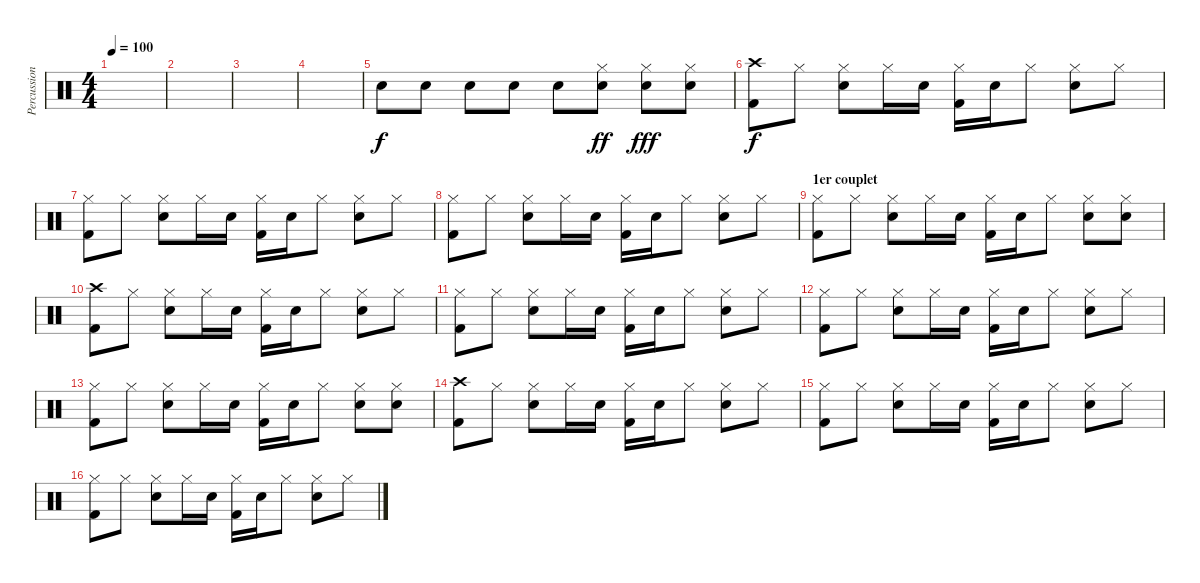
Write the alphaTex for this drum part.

\track ("Percussions" "Percussion") {instrument percussion}
\staff {score}
\articulation defaults
\ts (4 4)
\tempo 100
\clef neutral
\ks c
|
|
|
|
"Electric Snare (hit)".8 "Electric Snare (hit)".8 "Electric Snare (hit)".8 "Electric Snare (hit)".8 "Electric Snare (hit)".8{dy f} ("Hi-Hat (closed)" "Electric Snare (hit)").8{dy ff} ("Hi-Hat (closed)" "Electric Snare (hit)").8{dy fff} ("Hi-Hat (closed)" "Electric Snare (hit)").8 |
("Crash high (hit)" "Kick (hit) 2").8{dy f} "Hi-Hat (closed)".8 ("Hi-Hat (closed)" "Electric Snare (hit)").8 "Hi-Hat (closed)".16 "Electric Snare (hit)".16 ("Hi-Hat (closed)" "Kick (hit) 2").16 "Electric Snare (hit)".16 "Hi-Hat (closed)".8 ("Hi-Hat (closed)" "Electric Snare (hit)").8 "Hi-Hat (closed)".8 |
("Hi-Hat (closed)" "Kick (hit) 2").8 "Hi-Hat (closed)".8 ("Hi-Hat (closed)" "Electric Snare (hit)").8 "Hi-Hat (closed)".16 "Electric Snare (hit)".16 ("Hi-Hat (closed)" "Kick (hit) 2").16 "Electric Snare (hit)".16 "Hi-Hat (closed)".8 ("Hi-Hat (closed)" "Electric Snare (hit)").8 "Hi-Hat (closed)".8 |
("Hi-Hat (closed)" "Kick (hit) 2").8 "Hi-Hat (closed)".8 ("Hi-Hat (closed)" "Electric Snare (hit)").8 "Hi-Hat (closed)".16 "Electric Snare (hit)".16 ("Hi-Hat (closed)" "Kick (hit) 2").16 "Electric Snare (hit)".16 "Hi-Hat (closed)".8 ("Hi-Hat (closed)" "Electric Snare (hit)").8 "Hi-Hat (closed)".8 |
\section ("" "1er couplet")
("Hi-Hat (closed)" "Kick (hit) 2").8 "Hi-Hat (closed)".8 ("Hi-Hat (closed)" "Electric Snare (hit)").8 "Hi-Hat (closed)".16 "Electric Snare (hit)".16 ("Hi-Hat (closed)" "Kick (hit) 2").16 "Electric Snare (hit)".16 "Hi-Hat (closed)".8 ("Hi-Hat (closed)" "Electric Snare (hit)").8 ("Hi-Hat (closed)" "Electric Snare (hit)").8 |
("Crash high (hit)" "Kick (hit) 2").8 "Hi-Hat (closed)".8 ("Hi-Hat (closed)" "Electric Snare (hit)").8 "Hi-Hat (closed)".16 "Electric Snare (hit)".16 ("Hi-Hat (closed)" "Kick (hit) 2").16 "Electric Snare (hit)".16 "Hi-Hat (closed)".8 ("Hi-Hat (closed)" "Electric Snare (hit)").8 "Hi-Hat (closed)".8 |
("Hi-Hat (closed)" "Kick (hit) 2").8 "Hi-Hat (closed)".8 ("Hi-Hat (closed)" "Electric Snare (hit)").8 "Hi-Hat (closed)".16 "Electric Snare (hit)".16 ("Hi-Hat (closed)" "Kick (hit) 2").16 "Electric Snare (hit)".16 "Hi-Hat (closed)".8 ("Hi-Hat (closed)" "Electric Snare (hit)").8 "Hi-Hat (closed)".8 |
("Hi-Hat (closed)" "Kick (hit) 2").8 "Hi-Hat (closed)".8 ("Hi-Hat (closed)" "Electric Snare (hit)").8 "Hi-Hat (closed)".16 "Electric Snare (hit)".16 ("Hi-Hat (closed)" "Kick (hit) 2").16 "Electric Snare (hit)".16 "Hi-Hat (closed)".8 ("Hi-Hat (closed)" "Electric Snare (hit)").8 "Hi-Hat (closed)".8 |
("Hi-Hat (closed)" "Kick (hit) 2").8 "Hi-Hat (closed)".8 ("Hi-Hat (closed)" "Electric Snare (hit)").8 "Hi-Hat (closed)".16 "Electric Snare (hit)".16 ("Hi-Hat (closed)" "Kick (hit) 2").16 "Electric Snare (hit)".16 "Hi-Hat (closed)".8 ("Hi-Hat (closed)" "Electric Snare (hit)").8 ("Hi-Hat (closed)" "Electric Snare (hit)").8 |
("Crash high (hit)" "Kick (hit) 2").8 "Hi-Hat (closed)".8 ("Hi-Hat (closed)" "Electric Snare (hit)").8 "Hi-Hat (closed)".16 "Electric Snare (hit)".16 ("Hi-Hat (closed)" "Kick (hit) 2").16 "Electric Snare (hit)".16 "Hi-Hat (closed)".8 ("Hi-Hat (closed)" "Electric Snare (hit)").8 "Hi-Hat (closed)".8 |
("Hi-Hat (closed)" "Kick (hit) 2").8 "Hi-Hat (closed)".8 ("Hi-Hat (closed)" "Electric Snare (hit)").8 "Hi-Hat (closed)".16 "Electric Snare (hit)".16 ("Hi-Hat (closed)" "Kick (hit) 2").16 "Electric Snare (hit)".16 "Hi-Hat (closed)".8 ("Hi-Hat (closed)" "Electric Snare (hit)").8 "Hi-Hat (closed)".8 |
("Hi-Hat (closed)" "Kick (hit) 2").8 "Hi-Hat (closed)".8 ("Hi-Hat (closed)" "Electric Snare (hit)").8 "Hi-Hat (closed)".16 "Electric Snare (hit)".16 ("Hi-Hat (closed)" "Kick (hit) 2").16 "Electric Snare (hit)".16 "Hi-Hat (closed)".8 ("Hi-Hat (closed)" "Electric Snare (hit)").8 "Hi-Hat (closed)".8
